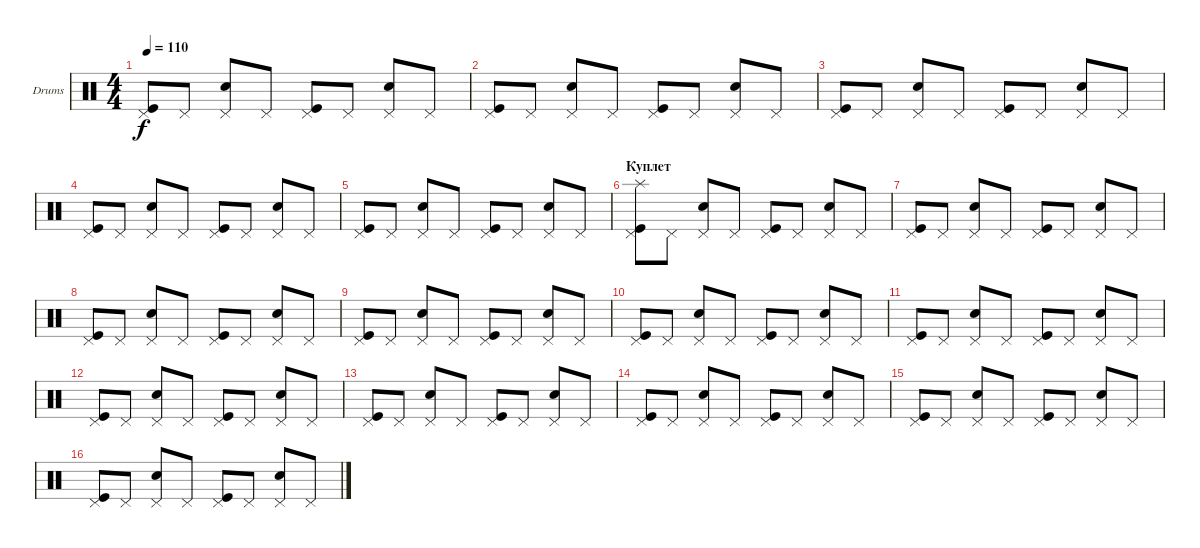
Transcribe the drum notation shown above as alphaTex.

\defaultSystemsLayout 4
\bracketExtendMode groupsimilarinstruments
\firstSystemTrackNameOrientation horizontal
\otherSystemsTrackNameOrientation horizontal
\track ("Drumkit" "Drums") {instrument percussion}
\staff {score}
\articulation defaults
\ts (4 4)
\tempo 110
\clef neutral
\ks c
("Pedal Hi-Hat (hit)" "Kick (hit)").8{dy f} "Pedal Hi-Hat (hit)".8 ("Snare (hit) 2" "Pedal Hi-Hat (hit)").8 "Pedal Hi-Hat (hit)".8 ("Pedal Hi-Hat (hit)" "Kick (hit)").8 "Pedal Hi-Hat (hit)".8 ("Snare (hit) 2" "Pedal Hi-Hat (hit)").8 "Pedal Hi-Hat (hit)".8 |
("Pedal Hi-Hat (hit)" "Kick (hit)").8 "Pedal Hi-Hat (hit)".8 ("Snare (hit) 2" "Pedal Hi-Hat (hit)").8 "Pedal Hi-Hat (hit)".8 ("Pedal Hi-Hat (hit)" "Kick (hit)").8 "Pedal Hi-Hat (hit)".8 ("Snare (hit) 2" "Pedal Hi-Hat (hit)").8 "Pedal Hi-Hat (hit)".8 |
("Pedal Hi-Hat (hit)" "Kick (hit)").8 "Pedal Hi-Hat (hit)".8 ("Snare (hit) 2" "Pedal Hi-Hat (hit)").8 "Pedal Hi-Hat (hit)".8 ("Pedal Hi-Hat (hit)" "Kick (hit)").8 "Pedal Hi-Hat (hit)".8 ("Snare (hit) 2" "Pedal Hi-Hat (hit)").8 "Pedal Hi-Hat (hit)".8 |
("Pedal Hi-Hat (hit)" "Kick (hit)").8 "Pedal Hi-Hat (hit)".8 ("Snare (hit) 2" "Pedal Hi-Hat (hit)").8 "Pedal Hi-Hat (hit)".8 ("Pedal Hi-Hat (hit)" "Kick (hit)").8 "Pedal Hi-Hat (hit)".8 ("Snare (hit) 2" "Pedal Hi-Hat (hit)").8 "Pedal Hi-Hat (hit)".8 |
("Pedal Hi-Hat (hit)" "Kick (hit)").8 "Pedal Hi-Hat (hit)".8 ("Snare (hit) 2" "Pedal Hi-Hat (hit)").8 "Pedal Hi-Hat (hit)".8 ("Pedal Hi-Hat (hit)" "Kick (hit)").8 "Pedal Hi-Hat (hit)".8 ("Snare (hit) 2" "Pedal Hi-Hat (hit)").8 "Pedal Hi-Hat (hit)".8 |
\section ("" "Куплет")
("Pedal Hi-Hat (hit)" "Kick (hit)" "Splash (hit)").8 "Pedal Hi-Hat (hit)".8 ("Snare (hit) 2" "Pedal Hi-Hat (hit)").8 "Pedal Hi-Hat (hit)".8 ("Pedal Hi-Hat (hit)" "Kick (hit)").8 "Pedal Hi-Hat (hit)".8 ("Snare (hit) 2" "Pedal Hi-Hat (hit)").8 "Pedal Hi-Hat (hit)".8 |
("Pedal Hi-Hat (hit)" "Kick (hit)").8 "Pedal Hi-Hat (hit)".8 ("Snare (hit) 2" "Pedal Hi-Hat (hit)").8 "Pedal Hi-Hat (hit)".8 ("Pedal Hi-Hat (hit)" "Kick (hit)").8 "Pedal Hi-Hat (hit)".8 ("Snare (hit) 2" "Pedal Hi-Hat (hit)").8 "Pedal Hi-Hat (hit)".8 |
("Pedal Hi-Hat (hit)" "Kick (hit)").8 "Pedal Hi-Hat (hit)".8 ("Snare (hit) 2" "Pedal Hi-Hat (hit)").8 "Pedal Hi-Hat (hit)".8 ("Pedal Hi-Hat (hit)" "Kick (hit)").8 "Pedal Hi-Hat (hit)".8 ("Snare (hit) 2" "Pedal Hi-Hat (hit)").8 "Pedal Hi-Hat (hit)".8 |
("Pedal Hi-Hat (hit)" "Kick (hit)").8 "Pedal Hi-Hat (hit)".8 ("Snare (hit) 2" "Pedal Hi-Hat (hit)").8 "Pedal Hi-Hat (hit)".8 ("Pedal Hi-Hat (hit)" "Kick (hit)").8 "Pedal Hi-Hat (hit)".8 ("Snare (hit) 2" "Pedal Hi-Hat (hit)").8 "Pedal Hi-Hat (hit)".8 |
("Pedal Hi-Hat (hit)" "Kick (hit)").8 "Pedal Hi-Hat (hit)".8 ("Snare (hit) 2" "Pedal Hi-Hat (hit)").8 "Pedal Hi-Hat (hit)".8 ("Pedal Hi-Hat (hit)" "Kick (hit)").8 "Pedal Hi-Hat (hit)".8 ("Snare (hit) 2" "Pedal Hi-Hat (hit)").8 "Pedal Hi-Hat (hit)".8 |
("Pedal Hi-Hat (hit)" "Kick (hit)").8 "Pedal Hi-Hat (hit)".8 ("Snare (hit) 2" "Pedal Hi-Hat (hit)").8 "Pedal Hi-Hat (hit)".8 ("Pedal Hi-Hat (hit)" "Kick (hit)").8 "Pedal Hi-Hat (hit)".8 ("Snare (hit) 2" "Pedal Hi-Hat (hit)").8 "Pedal Hi-Hat (hit)".8 |
("Pedal Hi-Hat (hit)" "Kick (hit)").8 "Pedal Hi-Hat (hit)".8 ("Snare (hit) 2" "Pedal Hi-Hat (hit)").8 "Pedal Hi-Hat (hit)".8 ("Pedal Hi-Hat (hit)" "Kick (hit)").8 "Pedal Hi-Hat (hit)".8 ("Snare (hit) 2" "Pedal Hi-Hat (hit)").8 "Pedal Hi-Hat (hit)".8 |
("Pedal Hi-Hat (hit)" "Kick (hit)").8 "Pedal Hi-Hat (hit)".8 ("Snare (hit) 2" "Pedal Hi-Hat (hit)").8 "Pedal Hi-Hat (hit)".8 ("Pedal Hi-Hat (hit)" "Kick (hit)").8 "Pedal Hi-Hat (hit)".8 ("Snare (hit) 2" "Pedal Hi-Hat (hit)").8 "Pedal Hi-Hat (hit)".8 |
("Pedal Hi-Hat (hit)" "Kick (hit)").8 "Pedal Hi-Hat (hit)".8 ("Snare (hit) 2" "Pedal Hi-Hat (hit)").8 "Pedal Hi-Hat (hit)".8 ("Pedal Hi-Hat (hit)" "Kick (hit)").8 "Pedal Hi-Hat (hit)".8 ("Snare (hit) 2" "Pedal Hi-Hat (hit)").8 "Pedal Hi-Hat (hit)".8 |
("Pedal Hi-Hat (hit)" "Kick (hit)").8 "Pedal Hi-Hat (hit)".8 ("Snare (hit) 2" "Pedal Hi-Hat (hit)").8 "Pedal Hi-Hat (hit)".8 ("Pedal Hi-Hat (hit)" "Kick (hit)").8 "Pedal Hi-Hat (hit)".8 ("Snare (hit) 2" "Pedal Hi-Hat (hit)").8 "Pedal Hi-Hat (hit)".8 |
("Pedal Hi-Hat (hit)" "Kick (hit)").8 "Pedal Hi-Hat (hit)".8 ("Snare (hit) 2" "Pedal Hi-Hat (hit)").8 "Pedal Hi-Hat (hit)".8 ("Pedal Hi-Hat (hit)" "Kick (hit)").8 "Pedal Hi-Hat (hit)".8 ("Snare (hit) 2" "Pedal Hi-Hat (hit)").8 "Pedal Hi-Hat (hit)".8
